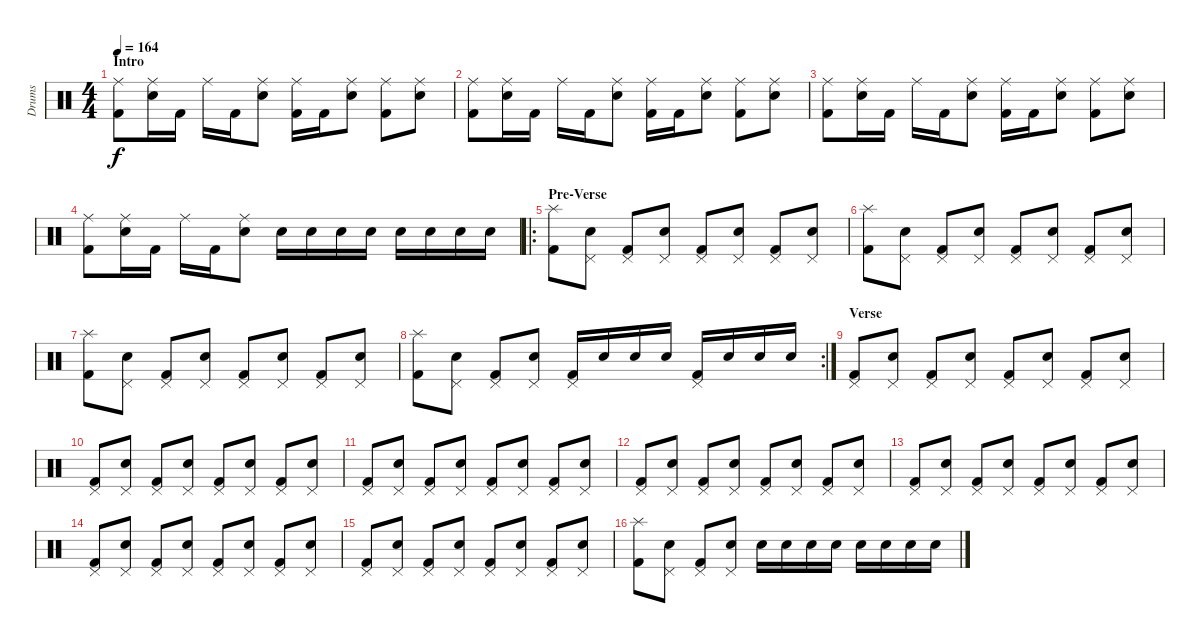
\track ("Drums" "Drums") {instrument percussion}
\staff {score}
\articulation defaults
\ts (4 4)
\section ("" "Intro")
\tempo 164
\clef neutral
\ks c
("Ride (middle)" "Kick (hit) 2").8{dy f} ("Ride (middle)" "Electric Snare (hit)").16 "Kick (hit) 2".16 "Ride (middle)".16 "Kick (hit) 2".16 ("Ride (middle)" "Electric Snare (hit)").8 ("Ride (middle)" "Kick (hit) 2").16 "Kick (hit) 2".16 ("Ride (middle)" "Electric Snare (hit)").8 ("Ride (middle)" "Kick (hit) 2").8 ("Ride (middle)" "Electric Snare (hit)").8 |
("Ride (middle)" "Kick (hit) 2").8 ("Ride (middle)" "Electric Snare (hit)").16 "Kick (hit) 2".16 "Ride (middle)".16 "Kick (hit) 2".16 ("Ride (middle)" "Electric Snare (hit)").8 ("Ride (middle)" "Kick (hit) 2").16 "Kick (hit) 2".16 ("Ride (middle)" "Electric Snare (hit)").8 ("Ride (middle)" "Kick (hit) 2").8 ("Ride (middle)" "Electric Snare (hit)").8 |
("Ride (middle)" "Kick (hit) 2").8 ("Ride (middle)" "Electric Snare (hit)").16 "Kick (hit) 2".16 "Ride (middle)".16 "Kick (hit) 2".16 ("Ride (middle)" "Electric Snare (hit)").8 ("Ride (middle)" "Kick (hit) 2").16 "Kick (hit) 2".16 ("Ride (middle)" "Electric Snare (hit)").8 ("Ride (middle)" "Kick (hit) 2").8 ("Ride (middle)" "Electric Snare (hit)").8 |
("Ride (middle)" "Kick (hit) 2").8 ("Ride (middle)" "Electric Snare (hit)").16 "Kick (hit) 2".16 "Ride (middle)".16 "Kick (hit) 2".16 ("Ride (middle)" "Electric Snare (hit)").8 "Electric Snare (hit)".16 "Electric Snare (hit)".16 "Electric Snare (hit)".16 "Electric Snare (hit)".16 "Electric Snare (hit)".16 "Electric Snare (hit)".16 "Electric Snare (hit)".16 "Electric Snare (hit)".16 |
\ro
\section ("" "Pre-Verse")
("Splash (hit)" "Kick (hit) 2").8 ("Pedal Hi-Hat (hit)" "Electric Snare (hit)").8 ("Pedal Hi-Hat (hit)" "Kick (hit) 2").8 ("Pedal Hi-Hat (hit)" "Electric Snare (hit)").8 ("Pedal Hi-Hat (hit)" "Kick (hit) 2").8 ("Pedal Hi-Hat (hit)" "Electric Snare (hit)").8 ("Pedal Hi-Hat (hit)" "Kick (hit) 2").8 ("Pedal Hi-Hat (hit)" "Electric Snare (hit)").8 |
("Splash (hit)" "Kick (hit) 2").8 ("Pedal Hi-Hat (hit)" "Electric Snare (hit)").8 ("Pedal Hi-Hat (hit)" "Kick (hit) 2").8 ("Pedal Hi-Hat (hit)" "Electric Snare (hit)").8 ("Pedal Hi-Hat (hit)" "Kick (hit) 2").8 ("Pedal Hi-Hat (hit)" "Electric Snare (hit)").8 ("Pedal Hi-Hat (hit)" "Kick (hit) 2").8 ("Pedal Hi-Hat (hit)" "Electric Snare (hit)").8 |
("Splash (hit)" "Kick (hit) 2").8 ("Pedal Hi-Hat (hit)" "Electric Snare (hit)").8 ("Pedal Hi-Hat (hit)" "Kick (hit) 2").8 ("Pedal Hi-Hat (hit)" "Electric Snare (hit)").8 ("Pedal Hi-Hat (hit)" "Kick (hit) 2").8 ("Pedal Hi-Hat (hit)" "Electric Snare (hit)").8 ("Pedal Hi-Hat (hit)" "Kick (hit) 2").8 ("Pedal Hi-Hat (hit)" "Electric Snare (hit)").8 |
\rc 2
("Splash (hit)" "Kick (hit) 2").8 ("Pedal Hi-Hat (hit)" "Electric Snare (hit)").8 ("Pedal Hi-Hat (hit)" "Kick (hit) 2").8 ("Pedal Hi-Hat (hit)" "Electric Snare (hit)").8 ("Pedal Hi-Hat (hit)" "Kick (hit) 2").16 "Electric Snare (hit)".16 "Electric Snare (hit)".16 "Electric Snare (hit)".16 ("Pedal Hi-Hat (hit)" "Kick (hit) 2").16 "Electric Snare (hit)".16 "Electric Snare (hit)".16 "Electric Snare (hit)".16 |
\section ("" "Verse")
("Pedal Hi-Hat (hit)" "Kick (hit) 2").8 ("Pedal Hi-Hat (hit)" "Electric Snare (hit)").8 ("Pedal Hi-Hat (hit)" "Kick (hit) 2").8 ("Pedal Hi-Hat (hit)" "Electric Snare (hit)").8 ("Pedal Hi-Hat (hit)" "Kick (hit) 2").8 ("Pedal Hi-Hat (hit)" "Electric Snare (hit)").8 ("Pedal Hi-Hat (hit)" "Kick (hit) 2").8 ("Pedal Hi-Hat (hit)" "Electric Snare (hit)").8 |
("Pedal Hi-Hat (hit)" "Kick (hit) 2").8 ("Pedal Hi-Hat (hit)" "Electric Snare (hit)").8 ("Pedal Hi-Hat (hit)" "Kick (hit) 2").8 ("Pedal Hi-Hat (hit)" "Electric Snare (hit)").8 ("Pedal Hi-Hat (hit)" "Kick (hit) 2").8 ("Pedal Hi-Hat (hit)" "Electric Snare (hit)").8 ("Pedal Hi-Hat (hit)" "Kick (hit) 2").8 ("Pedal Hi-Hat (hit)" "Electric Snare (hit)").8 |
("Pedal Hi-Hat (hit)" "Kick (hit) 2").8 ("Pedal Hi-Hat (hit)" "Electric Snare (hit)").8 ("Pedal Hi-Hat (hit)" "Kick (hit) 2").8 ("Pedal Hi-Hat (hit)" "Electric Snare (hit)").8 ("Pedal Hi-Hat (hit)" "Kick (hit) 2").8 ("Pedal Hi-Hat (hit)" "Electric Snare (hit)").8 ("Pedal Hi-Hat (hit)" "Kick (hit) 2").8 ("Pedal Hi-Hat (hit)" "Electric Snare (hit)").8 |
("Pedal Hi-Hat (hit)" "Kick (hit) 2").8 ("Pedal Hi-Hat (hit)" "Electric Snare (hit)").8 ("Pedal Hi-Hat (hit)" "Kick (hit) 2").8 ("Pedal Hi-Hat (hit)" "Electric Snare (hit)").8 ("Pedal Hi-Hat (hit)" "Kick (hit) 2").8 ("Pedal Hi-Hat (hit)" "Electric Snare (hit)").8 ("Pedal Hi-Hat (hit)" "Kick (hit) 2").8 ("Pedal Hi-Hat (hit)" "Electric Snare (hit)").8 |
("Pedal Hi-Hat (hit)" "Kick (hit) 2").8 ("Pedal Hi-Hat (hit)" "Electric Snare (hit)").8 ("Pedal Hi-Hat (hit)" "Kick (hit) 2").8 ("Pedal Hi-Hat (hit)" "Electric Snare (hit)").8 ("Pedal Hi-Hat (hit)" "Kick (hit) 2").8 ("Pedal Hi-Hat (hit)" "Electric Snare (hit)").8 ("Pedal Hi-Hat (hit)" "Kick (hit) 2").8 ("Pedal Hi-Hat (hit)" "Electric Snare (hit)").8 |
("Pedal Hi-Hat (hit)" "Kick (hit) 2").8 ("Pedal Hi-Hat (hit)" "Electric Snare (hit)").8 ("Pedal Hi-Hat (hit)" "Kick (hit) 2").8 ("Pedal Hi-Hat (hit)" "Electric Snare (hit)").8 ("Pedal Hi-Hat (hit)" "Kick (hit) 2").8 ("Pedal Hi-Hat (hit)" "Electric Snare (hit)").8 ("Pedal Hi-Hat (hit)" "Kick (hit) 2").8 ("Pedal Hi-Hat (hit)" "Electric Snare (hit)").8 |
("Pedal Hi-Hat (hit)" "Kick (hit) 2").8 ("Pedal Hi-Hat (hit)" "Electric Snare (hit)").8 ("Pedal Hi-Hat (hit)" "Kick (hit) 2").8 ("Pedal Hi-Hat (hit)" "Electric Snare (hit)").8 ("Pedal Hi-Hat (hit)" "Kick (hit) 2").8 ("Pedal Hi-Hat (hit)" "Electric Snare (hit)").8 ("Pedal Hi-Hat (hit)" "Kick (hit) 2").8 ("Pedal Hi-Hat (hit)" "Electric Snare (hit)").8 |
("Splash (hit)" "Kick (hit) 2").8 ("Pedal Hi-Hat (hit)" "Electric Snare (hit)").8 ("Pedal Hi-Hat (hit)" "Kick (hit) 2").8 ("Pedal Hi-Hat (hit)" "Electric Snare (hit)").8 "Electric Snare (hit)".16 "Electric Snare (hit)".16 "Electric Snare (hit)".16 "Electric Snare (hit)".16 "Electric Snare (hit)".16 "Electric Snare (hit)".16 "Electric Snare (hit)".16 "Electric Snare (hit)".16
